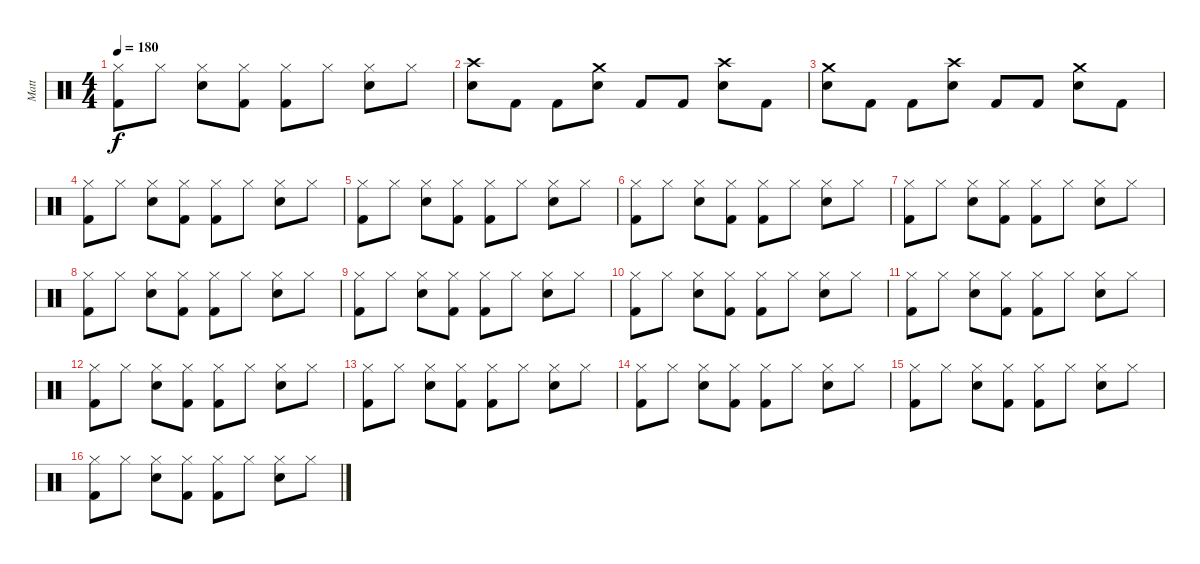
\track ("Matt" "Matt") {instrument percussion}
\staff {score}
\articulation defaults
\ts (4 4)
\tempo 180
\clef neutral
\ks c
("Hi-Hat (closed)" "Kick (hit) 2").8{dy f} "Hi-Hat (closed)".8 ("Hi-Hat (closed)" "Snare (hit) 2").8 ("Hi-Hat (closed)" "Kick (hit) 2").8 ("Hi-Hat (closed)" "Kick (hit) 2").8 "Hi-Hat (closed)".8 ("Hi-Hat (closed)" "Snare (hit) 2").8 "Hi-Hat (closed)".8 |
("Crash high (hit)" "Snare (hit) 2").8 "Kick (hit) 2".8 "Kick (hit) 2".8 ("Crash medium (hit)" "Snare (hit) 2").8 "Kick (hit) 2".8 "Kick (hit) 2".8 ("Crash high (hit)" "Snare (hit) 2").8 "Kick (hit) 2".8 |
("Crash medium (hit)" "Snare (hit) 2").8 "Kick (hit) 2".8 "Kick (hit) 2".8 ("Crash high (hit)" "Snare (hit) 2").8 "Kick (hit) 2".8 "Kick (hit) 2".8 ("Crash medium (hit)" "Snare (hit) 2").8 "Kick (hit) 2".8 |
("Hi-Hat (closed)" "Kick (hit) 2").8 "Hi-Hat (closed)".8 ("Hi-Hat (closed)" "Snare (hit) 2").8 ("Hi-Hat (closed)" "Kick (hit) 2").8 ("Hi-Hat (closed)" "Kick (hit) 2").8 "Hi-Hat (closed)".8 ("Hi-Hat (closed)" "Snare (hit) 2").8 "Hi-Hat (closed)".8 |
("Hi-Hat (closed)" "Kick (hit) 2").8 "Hi-Hat (closed)".8 ("Hi-Hat (closed)" "Snare (hit) 2").8 ("Hi-Hat (closed)" "Kick (hit) 2").8 ("Hi-Hat (closed)" "Kick (hit) 2").8 "Hi-Hat (closed)".8 ("Hi-Hat (closed)" "Snare (hit) 2").8 "Hi-Hat (closed)".8 |
("Hi-Hat (closed)" "Kick (hit) 2").8 "Hi-Hat (closed)".8 ("Hi-Hat (closed)" "Snare (hit) 2").8 ("Hi-Hat (closed)" "Kick (hit) 2").8 ("Hi-Hat (closed)" "Kick (hit) 2").8 "Hi-Hat (closed)".8 ("Hi-Hat (closed)" "Snare (hit) 2").8 "Hi-Hat (closed)".8 |
("Hi-Hat (closed)" "Kick (hit) 2").8 "Hi-Hat (closed)".8 ("Hi-Hat (closed)" "Snare (hit) 2").8 ("Hi-Hat (closed)" "Kick (hit) 2").8 ("Hi-Hat (closed)" "Kick (hit) 2").8 "Hi-Hat (closed)".8 ("Hi-Hat (closed)" "Snare (hit) 2").8 "Hi-Hat (closed)".8 |
("Hi-Hat (closed)" "Kick (hit) 2").8 "Hi-Hat (closed)".8 ("Hi-Hat (closed)" "Snare (hit) 2").8 ("Hi-Hat (closed)" "Kick (hit) 2").8 ("Hi-Hat (closed)" "Kick (hit) 2").8 "Hi-Hat (closed)".8 ("Hi-Hat (closed)" "Snare (hit) 2").8 "Hi-Hat (closed)".8 |
("Hi-Hat (closed)" "Kick (hit) 2").8 "Hi-Hat (closed)".8 ("Hi-Hat (closed)" "Snare (hit) 2").8 ("Hi-Hat (closed)" "Kick (hit) 2").8 ("Hi-Hat (closed)" "Kick (hit) 2").8 "Hi-Hat (closed)".8 ("Hi-Hat (closed)" "Snare (hit) 2").8 "Hi-Hat (closed)".8 |
("Hi-Hat (closed)" "Kick (hit) 2").8 "Hi-Hat (closed)".8 ("Hi-Hat (closed)" "Snare (hit) 2").8 ("Hi-Hat (closed)" "Kick (hit) 2").8 ("Hi-Hat (closed)" "Kick (hit) 2").8 "Hi-Hat (closed)".8 ("Hi-Hat (closed)" "Snare (hit) 2").8 "Hi-Hat (closed)".8 |
("Hi-Hat (closed)" "Kick (hit) 2").8 "Hi-Hat (closed)".8 ("Hi-Hat (closed)" "Snare (hit) 2").8 ("Hi-Hat (closed)" "Kick (hit) 2").8 ("Hi-Hat (closed)" "Kick (hit) 2").8 "Hi-Hat (closed)".8 ("Hi-Hat (closed)" "Snare (hit) 2").8 "Hi-Hat (closed)".8 |
("Hi-Hat (closed)" "Kick (hit) 2").8 "Hi-Hat (closed)".8 ("Hi-Hat (closed)" "Snare (hit) 2").8 ("Hi-Hat (closed)" "Kick (hit) 2").8 ("Hi-Hat (closed)" "Kick (hit) 2").8 "Hi-Hat (closed)".8 ("Hi-Hat (closed)" "Snare (hit) 2").8 "Hi-Hat (closed)".8 |
("Hi-Hat (closed)" "Kick (hit) 2").8 "Hi-Hat (closed)".8 ("Hi-Hat (closed)" "Snare (hit) 2").8 ("Hi-Hat (closed)" "Kick (hit) 2").8 ("Hi-Hat (closed)" "Kick (hit) 2").8 "Hi-Hat (closed)".8 ("Hi-Hat (closed)" "Snare (hit) 2").8 "Hi-Hat (closed)".8 |
("Hi-Hat (closed)" "Kick (hit) 2").8 "Hi-Hat (closed)".8 ("Hi-Hat (closed)" "Snare (hit) 2").8 ("Hi-Hat (closed)" "Kick (hit) 2").8 ("Hi-Hat (closed)" "Kick (hit) 2").8 "Hi-Hat (closed)".8 ("Hi-Hat (closed)" "Snare (hit) 2").8 "Hi-Hat (closed)".8 |
("Hi-Hat (closed)" "Kick (hit) 2").8 "Hi-Hat (closed)".8 ("Hi-Hat (closed)" "Snare (hit) 2").8 ("Hi-Hat (closed)" "Kick (hit) 2").8 ("Hi-Hat (closed)" "Kick (hit) 2").8 "Hi-Hat (closed)".8 ("Hi-Hat (closed)" "Snare (hit) 2").8 "Hi-Hat (closed)".8 |
("Hi-Hat (closed)" "Kick (hit) 2").8 "Hi-Hat (closed)".8 ("Hi-Hat (closed)" "Snare (hit) 2").8 ("Hi-Hat (closed)" "Kick (hit) 2").8 ("Hi-Hat (closed)" "Kick (hit) 2").8 "Hi-Hat (closed)".8 ("Hi-Hat (closed)" "Snare (hit) 2").8 "Hi-Hat (closed)".8
